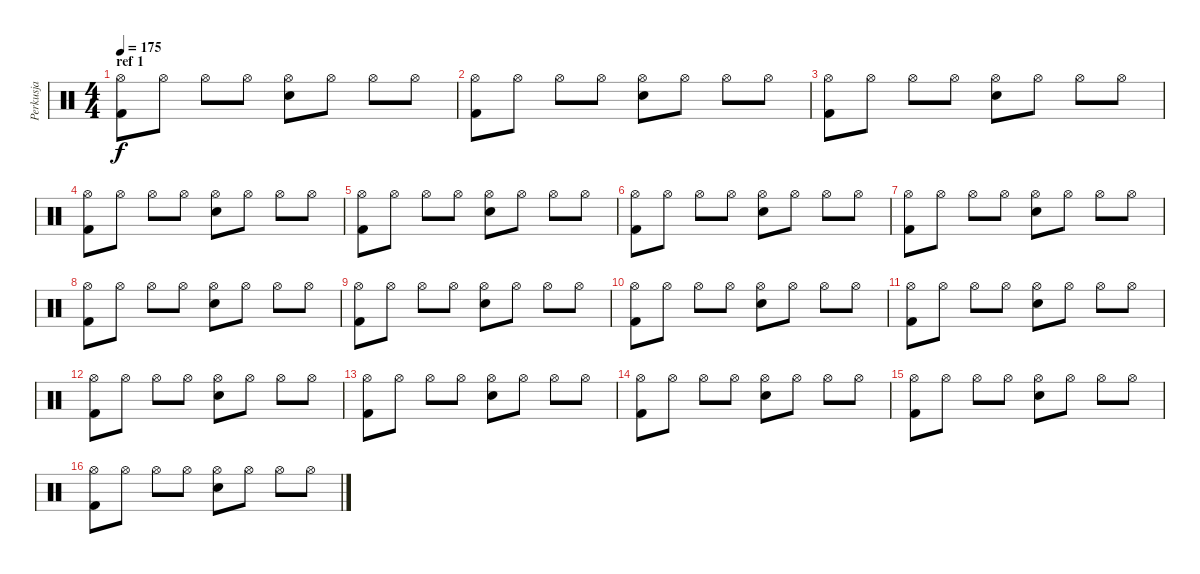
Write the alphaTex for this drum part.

\track ("Perkusja" "Perkusja") {instrument percussion}
\staff {score}
\articulation defaults
\ts (4 4)
\section ("" "ref 1")
\tempo 175
\clef neutral
\ks c
("Kick (hit) 2" "Hi-Hat (open)").8{dy f} "Hi-Hat (open)".8 "Hi-Hat (open)".8 "Hi-Hat (open)".8 ("Snare (hit) 2" "Hi-Hat (open)").8 "Hi-Hat (open)".8 "Hi-Hat (open)".8 "Hi-Hat (open)".8 |
("Kick (hit) 2" "Hi-Hat (open)").8 "Hi-Hat (open)".8 "Hi-Hat (open)".8 "Hi-Hat (open)".8 ("Snare (hit) 2" "Hi-Hat (open)").8 "Hi-Hat (open)".8 "Hi-Hat (open)".8 "Hi-Hat (open)".8 |
("Kick (hit) 2" "Hi-Hat (open)").8 "Hi-Hat (open)".8 "Hi-Hat (open)".8 "Hi-Hat (open)".8 ("Snare (hit) 2" "Hi-Hat (open)").8 "Hi-Hat (open)".8 "Hi-Hat (open)".8 "Hi-Hat (open)".8 |
("Kick (hit) 2" "Hi-Hat (open)").8 "Hi-Hat (open)".8 "Hi-Hat (open)".8 "Hi-Hat (open)".8 ("Snare (hit) 2" "Hi-Hat (open)").8 "Hi-Hat (open)".8 "Hi-Hat (open)".8 "Hi-Hat (open)".8 |
("Kick (hit) 2" "Hi-Hat (open)").8 "Hi-Hat (open)".8 "Hi-Hat (open)".8 "Hi-Hat (open)".8 ("Snare (hit) 2" "Hi-Hat (open)").8 "Hi-Hat (open)".8 "Hi-Hat (open)".8 "Hi-Hat (open)".8 |
("Kick (hit) 2" "Hi-Hat (open)").8 "Hi-Hat (open)".8 "Hi-Hat (open)".8 "Hi-Hat (open)".8 ("Snare (hit) 2" "Hi-Hat (open)").8 "Hi-Hat (open)".8 "Hi-Hat (open)".8 "Hi-Hat (open)".8 |
("Kick (hit) 2" "Hi-Hat (open)").8 "Hi-Hat (open)".8 "Hi-Hat (open)".8 "Hi-Hat (open)".8 ("Snare (hit) 2" "Hi-Hat (open)").8 "Hi-Hat (open)".8 "Hi-Hat (open)".8 "Hi-Hat (open)".8 |
("Kick (hit) 2" "Hi-Hat (open)").8 "Hi-Hat (open)".8 "Hi-Hat (open)".8 "Hi-Hat (open)".8 ("Snare (hit) 2" "Hi-Hat (open)").8 "Hi-Hat (open)".8 "Hi-Hat (open)".8 "Hi-Hat (open)".8 |
("Kick (hit) 2" "Hi-Hat (open)").8 "Hi-Hat (open)".8 "Hi-Hat (open)".8 "Hi-Hat (open)".8 ("Snare (hit) 2" "Hi-Hat (open)").8 "Hi-Hat (open)".8 "Hi-Hat (open)".8 "Hi-Hat (open)".8 |
("Kick (hit) 2" "Hi-Hat (open)").8 "Hi-Hat (open)".8 "Hi-Hat (open)".8 "Hi-Hat (open)".8 ("Snare (hit) 2" "Hi-Hat (open)").8 "Hi-Hat (open)".8 "Hi-Hat (open)".8 "Hi-Hat (open)".8 |
("Kick (hit) 2" "Hi-Hat (open)").8 "Hi-Hat (open)".8 "Hi-Hat (open)".8 "Hi-Hat (open)".8 ("Snare (hit) 2" "Hi-Hat (open)").8 "Hi-Hat (open)".8 "Hi-Hat (open)".8 "Hi-Hat (open)".8 |
("Kick (hit) 2" "Hi-Hat (open)").8 "Hi-Hat (open)".8 "Hi-Hat (open)".8 "Hi-Hat (open)".8 ("Snare (hit) 2" "Hi-Hat (open)").8 "Hi-Hat (open)".8 "Hi-Hat (open)".8 "Hi-Hat (open)".8 |
("Kick (hit) 2" "Hi-Hat (open)").8 "Hi-Hat (open)".8 "Hi-Hat (open)".8 "Hi-Hat (open)".8 ("Snare (hit) 2" "Hi-Hat (open)").8 "Hi-Hat (open)".8 "Hi-Hat (open)".8 "Hi-Hat (open)".8 |
("Kick (hit) 2" "Hi-Hat (open)").8 "Hi-Hat (open)".8 "Hi-Hat (open)".8 "Hi-Hat (open)".8 ("Snare (hit) 2" "Hi-Hat (open)").8 "Hi-Hat (open)".8 "Hi-Hat (open)".8 "Hi-Hat (open)".8 |
("Kick (hit) 2" "Hi-Hat (open)").8 "Hi-Hat (open)".8 "Hi-Hat (open)".8 "Hi-Hat (open)".8 ("Snare (hit) 2" "Hi-Hat (open)").8 "Hi-Hat (open)".8 "Hi-Hat (open)".8 "Hi-Hat (open)".8 |
("Kick (hit) 2" "Hi-Hat (open)").8 "Hi-Hat (open)".8 "Hi-Hat (open)".8 "Hi-Hat (open)".8 ("Snare (hit) 2" "Hi-Hat (open)").8 "Hi-Hat (open)".8 "Hi-Hat (open)".8 "Hi-Hat (open)".8
